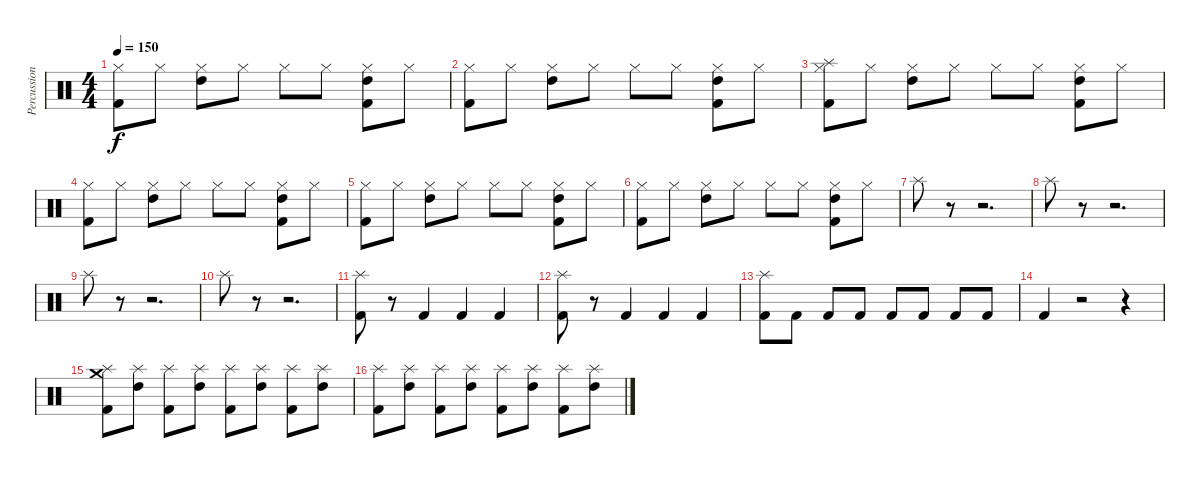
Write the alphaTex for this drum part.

\track ("Percussions" "Percussion") {instrument percussion}
\staff {score}
\articulation defaults
\ts (4 4)
\tempo 150
\clef neutral
\ks c
("Kick (hit) 2" "Hi-Hat (closed)").8{dy f} "Hi-Hat (closed)".8 ("High Tom (hit)" "Hi-Hat (closed)").8 "Hi-Hat (closed)".8 "Hi-Hat (closed)".8 "Hi-Hat (closed)".8 ("Kick (hit) 2" "High Tom (hit)" "Hi-Hat (closed)").8 "Hi-Hat (closed)".8 |
("Kick (hit) 2" "Hi-Hat (closed)").8 "Hi-Hat (closed)".8 ("High Tom (hit)" "Hi-Hat (closed)").8 "Hi-Hat (closed)".8 "Hi-Hat (closed)".8 "Hi-Hat (closed)".8 ("Kick (hit) 2" "High Tom (hit)" "Hi-Hat (closed)").8 "Hi-Hat (closed)".8 |
("Kick (hit) 2" "Splash (hit)" "Hi-Hat (closed)").8 "Hi-Hat (closed)".8 ("High Tom (hit)" "Hi-Hat (closed)").8 "Hi-Hat (closed)".8 "Hi-Hat (closed)".8 "Hi-Hat (closed)".8 ("Kick (hit) 2" "High Tom (hit)" "Hi-Hat (closed)").8 "Hi-Hat (closed)".8 |
("Kick (hit) 2" "Hi-Hat (closed)").8 "Hi-Hat (closed)".8 ("High Tom (hit)" "Hi-Hat (closed)").8 "Hi-Hat (closed)".8 "Hi-Hat (closed)".8 "Hi-Hat (closed)".8 ("Kick (hit) 2" "High Tom (hit)" "Hi-Hat (closed)").8 "Hi-Hat (closed)".8 |
("Kick (hit) 2" "Hi-Hat (closed)").8 "Hi-Hat (closed)".8 ("High Tom (hit)" "Hi-Hat (closed)").8 "Hi-Hat (closed)".8 "Hi-Hat (closed)".8 "Hi-Hat (closed)".8 ("Kick (hit) 2" "High Tom (hit)" "Hi-Hat (closed)").8 "Hi-Hat (closed)".8 |
("Kick (hit) 2" "Hi-Hat (closed)").8 "Hi-Hat (closed)".8 ("High Tom (hit)" "Hi-Hat (closed)").8 "Hi-Hat (closed)".8 "Hi-Hat (closed)".8 "Hi-Hat (closed)".8 ("Kick (hit) 2" "High Tom (hit)" "Hi-Hat (closed)").8 "Hi-Hat (closed)".8 |
"Splash (hit)".8 r.8 r.2{d} |
"Splash (hit)".8 r.8 r.2{d} |
"Splash (hit)".8 r.8 r.2{d} |
"Splash (hit)".8 r.8 r.2{d} |
("Kick (hit) 2" "Splash (hit)").8 r.8 "Kick (hit) 2".4 "Kick (hit) 2".4 "Kick (hit) 2".4 |
("Kick (hit) 2" "Splash (hit)").8 r.8 "Kick (hit) 2".4 "Kick (hit) 2".4 "Kick (hit) 2".4 |
("Kick (hit) 2" "Splash (hit)").8 "Kick (hit) 2".8 "Kick (hit) 2".8 "Kick (hit) 2".8 "Kick (hit) 2".8 "Kick (hit) 2".8 "Kick (hit) 2".8 "Kick (hit) 2".8 |
"Kick (hit) 2".4 r.2 r.4 |
("Kick (hit) 2" "Crash medium (hit)" "Splash (hit)").8 ("High Tom (hit)" "Splash (hit)").8 ("Kick (hit) 2" "Splash (hit)").8 ("High Tom (hit)" "Splash (hit)").8 ("Kick (hit) 2" "Splash (hit)").8 ("High Tom (hit)" "Splash (hit)").8 ("Kick (hit) 2" "Splash (hit)").8 ("High Tom (hit)" "Splash (hit)").8 |
("Kick (hit) 2" "Splash (hit)").8 ("High Tom (hit)" "Splash (hit)").8 ("Kick (hit) 2" "Splash (hit)").8 ("High Tom (hit)" "Splash (hit)").8 ("Kick (hit) 2" "Splash (hit)").8 ("High Tom (hit)" "Splash (hit)").8 ("Kick (hit) 2" "Splash (hit)").8 ("High Tom (hit)" "Splash (hit)").8
